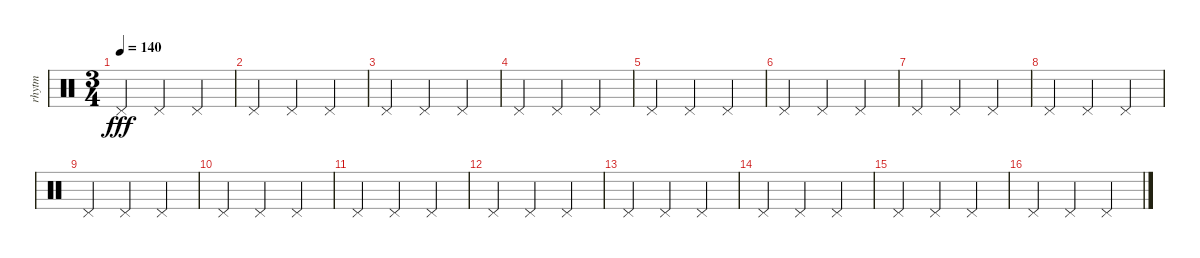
\track ("rhytm" "rhytm") {instrument percussion}
\staff {score}
\articulation defaults
\ts (3 4)
\tempo 140
\clef neutral
\ks c "Pedal Hi-Hat (hit)".4{dy fff} "Pedal Hi-Hat (hit)".4 "Pedal Hi-Hat (hit)".4
|
"Pedal Hi-Hat (hit)".4 "Pedal Hi-Hat (hit)".4 "Pedal Hi-Hat (hit)".4 |
"Pedal Hi-Hat (hit)".4 "Pedal Hi-Hat (hit)".4 "Pedal Hi-Hat (hit)".4 |
"Pedal Hi-Hat (hit)".4 "Pedal Hi-Hat (hit)".4 "Pedal Hi-Hat (hit)".4 |
"Pedal Hi-Hat (hit)".4 "Pedal Hi-Hat (hit)".4 "Pedal Hi-Hat (hit)".4 |
"Pedal Hi-Hat (hit)".4 "Pedal Hi-Hat (hit)".4 "Pedal Hi-Hat (hit)".4 |
"Pedal Hi-Hat (hit)".4 "Pedal Hi-Hat (hit)".4 "Pedal Hi-Hat (hit)".4 |
"Pedal Hi-Hat (hit)".4 "Pedal Hi-Hat (hit)".4 "Pedal Hi-Hat (hit)".4 |
"Pedal Hi-Hat (hit)".4 "Pedal Hi-Hat (hit)".4 "Pedal Hi-Hat (hit)".4 |
"Pedal Hi-Hat (hit)".4 "Pedal Hi-Hat (hit)".4 "Pedal Hi-Hat (hit)".4 |
"Pedal Hi-Hat (hit)".4 "Pedal Hi-Hat (hit)".4 "Pedal Hi-Hat (hit)".4 |
"Pedal Hi-Hat (hit)".4 "Pedal Hi-Hat (hit)".4 "Pedal Hi-Hat (hit)".4 |
"Pedal Hi-Hat (hit)".4 "Pedal Hi-Hat (hit)".4 "Pedal Hi-Hat (hit)".4 |
"Pedal Hi-Hat (hit)".4 "Pedal Hi-Hat (hit)".4 "Pedal Hi-Hat (hit)".4 |
"Pedal Hi-Hat (hit)".4 "Pedal Hi-Hat (hit)".4 "Pedal Hi-Hat (hit)".4 |
"Pedal Hi-Hat (hit)".4 "Pedal Hi-Hat (hit)".4 "Pedal Hi-Hat (hit)".4
